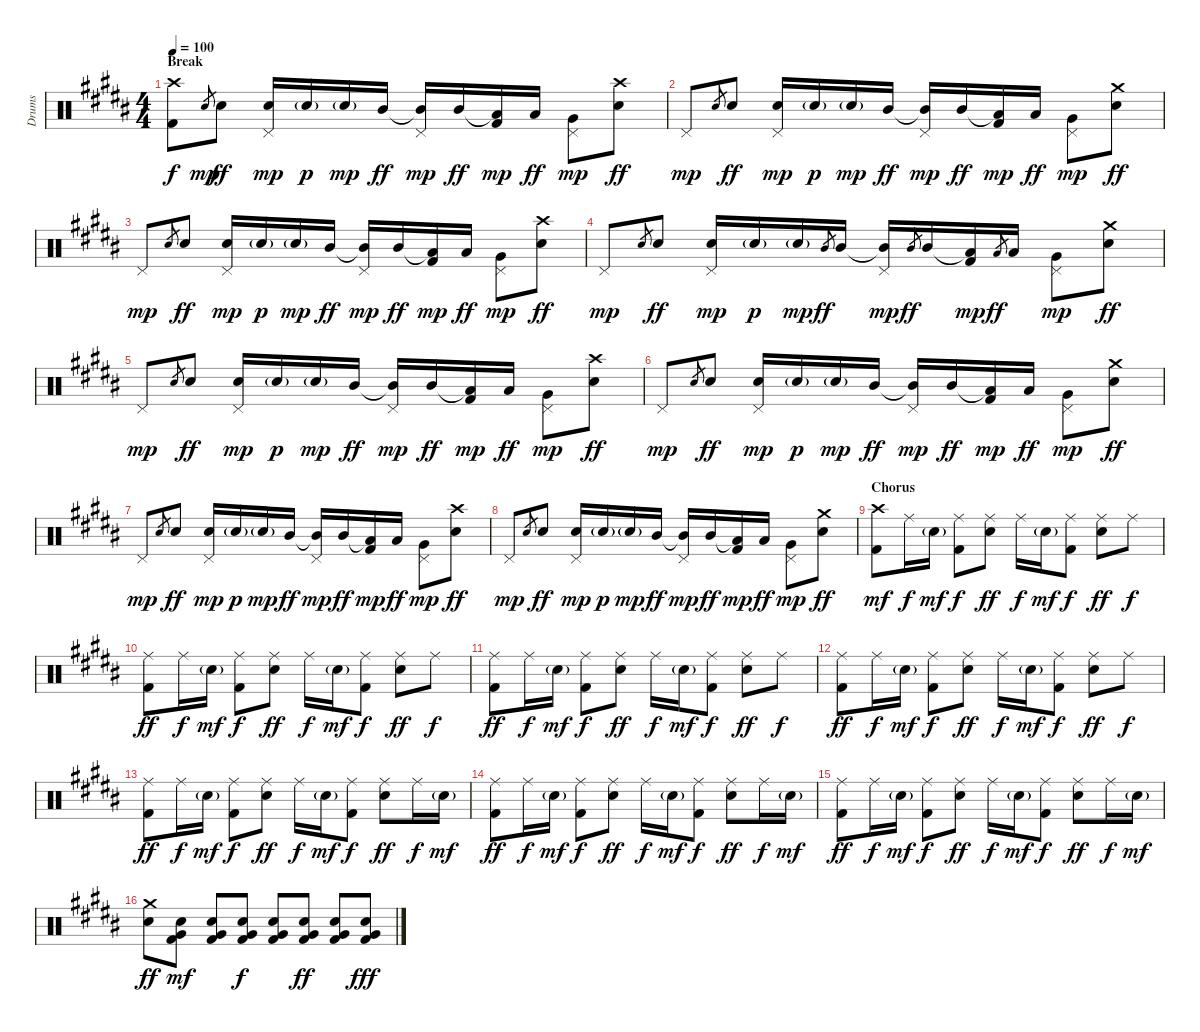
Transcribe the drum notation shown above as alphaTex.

\track ("Drums" "Drums") {instrument percussion}
\staff {score}
\articulation defaults
\ts (4 4)
\section ("" "Break")
\tempo 100
\clef neutral
\ks b
("Crash high (hit)" "Kick (hit) 2").8{dy f} "Snare (hit) 2".8{gr dy mp} "Snare (hit) 2".8{dy ff} ("Snare (hit) 2" "Pedal Hi-Hat (hit)").16{dy mp} "Snare (hit) 2"{g}.16{dy p} "Snare (hit) 2"{g}.16{dy mp} "Mid Tom (hit)".16{dy ff} ("Mid Tom (hit)"{t} "Pedal Hi-Hat (hit)").16{dy mp} "Mid Tom (hit)".16{dy ff} ("Low Tom (hit)"{t} "Kick (hit) 2").16{dy mp} "Low Tom (hit)".16{dy ff} ("Very Low Tom (hit)" "Pedal Hi-Hat (hit)").8{dy mp} ("Crash high (hit)" "Snare (hit) 2").8{dy ff} |
"Pedal Hi-Hat (hit)".8{dy mp} "Snare (hit) 2".8{gr} "Snare (hit) 2".8{dy ff} ("Snare (hit) 2" "Pedal Hi-Hat (hit)").16{dy mp} "Snare (hit) 2"{g}.16{dy p} "Snare (hit) 2"{g}.16{dy mp} "Mid Tom (hit)".16{dy ff} ("Mid Tom (hit)"{t} "Pedal Hi-Hat (hit)").16{dy mp} "Mid Tom (hit)".16{dy ff} ("Low Tom (hit)"{t} "Kick (hit) 2").16{dy mp} "Low Tom (hit)".16{dy ff} ("Very Low Tom (hit)" "Pedal Hi-Hat (hit)").8{dy mp} ("Crash medium (hit)" "Snare (hit) 2").8{dy ff} |
"Pedal Hi-Hat (hit)".8{dy mp} "Snare (hit) 2".8{gr} "Snare (hit) 2".8{dy ff} ("Snare (hit) 2" "Pedal Hi-Hat (hit)").16{dy mp} "Snare (hit) 2"{g}.16{dy p} "Snare (hit) 2"{g}.16{dy mp} "Mid Tom (hit)".16{dy ff} ("Mid Tom (hit)"{t} "Pedal Hi-Hat (hit)").16{dy mp} "Mid Tom (hit)".16{dy ff} ("Low Tom (hit)"{t} "Kick (hit) 2").16{dy mp} "Low Tom (hit)".16{dy ff} ("Very Low Tom (hit)" "Pedal Hi-Hat (hit)").8{dy mp} ("Crash high (hit)" "Snare (hit) 2").8{dy ff} |
"Pedal Hi-Hat (hit)".8{dy mp} "Snare (hit) 2".8{gr} "Snare (hit) 2".8{dy ff} ("Snare (hit) 2" "Pedal Hi-Hat (hit)").16{dy mp} "Snare (hit) 2"{g}.16{dy p} "Snare (hit) 2"{g}.16{dy mp} "Mid Tom (hit)".8{gr dy ff} "Mid Tom (hit)".16 ("Mid Tom (hit)"{t} "Pedal Hi-Hat (hit)").16{dy mp} "Mid Tom (hit)".8{gr dy ff} "Mid Tom (hit)".16 ("Low Tom (hit)"{t} "Kick (hit) 2").16{dy mp} "Low Tom (hit)".8{gr dy ff} "Low Tom (hit)".16 ("Very Low Tom (hit)" "Pedal Hi-Hat (hit)").8{dy mp} ("Crash medium (hit)" "Snare (hit) 2").8{dy ff} |
"Pedal Hi-Hat (hit)".8{dy mp} "Snare (hit) 2".8{gr} "Snare (hit) 2".8{dy ff} ("Snare (hit) 2" "Pedal Hi-Hat (hit)").16{dy mp} "Snare (hit) 2"{g}.16{dy p} "Snare (hit) 2"{g}.16{dy mp} "Mid Tom (hit)".16{dy ff} ("Mid Tom (hit)"{t} "Pedal Hi-Hat (hit)").16{dy mp} "Mid Tom (hit)".16{dy ff} ("Low Tom (hit)"{t} "Kick (hit) 2").16{dy mp} "Low Tom (hit)".16{dy ff} ("Very Low Tom (hit)" "Pedal Hi-Hat (hit)").8{dy mp} ("Crash high (hit)" "Snare (hit) 2").8{dy ff} |
"Pedal Hi-Hat (hit)".8{dy mp} "Snare (hit) 2".8{gr} "Snare (hit) 2".8{dy ff} ("Snare (hit) 2" "Pedal Hi-Hat (hit)").16{dy mp} "Snare (hit) 2"{g}.16{dy p} "Snare (hit) 2"{g}.16{dy mp} "Mid Tom (hit)".16{dy ff} ("Mid Tom (hit)"{t} "Pedal Hi-Hat (hit)").16{dy mp} "Mid Tom (hit)".16{dy ff} ("Low Tom (hit)"{t} "Kick (hit) 2").16{dy mp} "Low Tom (hit)".16{dy ff} ("Very Low Tom (hit)" "Pedal Hi-Hat (hit)").8{dy mp} ("Crash medium (hit)" "Snare (hit) 2").8{dy ff} |
"Pedal Hi-Hat (hit)".8{dy mp volume 7} "Snare (hit) 2".8{gr} "Snare (hit) 2".8{dy ff} ("Snare (hit) 2" "Pedal Hi-Hat (hit)").16{dy mp} "Snare (hit) 2"{g}.16{dy p} "Snare (hit) 2"{g}.16{dy mp} "Mid Tom (hit)".16{dy ff} ("Mid Tom (hit)"{t} "Pedal Hi-Hat (hit)").16{dy mp} "Mid Tom (hit)".16{dy ff} ("Low Tom (hit)"{t} "Kick (hit) 2").16{dy mp} "Low Tom (hit)".16{dy ff} ("Very Low Tom (hit)" "Pedal Hi-Hat (hit)").8{dy mp} ("Crash high (hit)" "Snare (hit) 2").8{dy ff} |
"Pedal Hi-Hat (hit)".8{dy mp} "Snare (hit) 2".8{gr} "Snare (hit) 2".8{dy ff} ("Snare (hit) 2" "Pedal Hi-Hat (hit)").16{dy mp} "Snare (hit) 2"{g}.16{dy p} "Snare (hit) 2"{g}.16{dy mp} "Mid Tom (hit)".16{dy ff} ("Mid Tom (hit)"{t} "Pedal Hi-Hat (hit)").16{dy mp} "Mid Tom (hit)".16{dy ff} ("Low Tom (hit)"{t} "Kick (hit) 2").16{dy mp} "Low Tom (hit)".16{dy ff} ("Very Low Tom (hit)" "Pedal Hi-Hat (hit)").8{dy mp} ("Crash medium (hit)" "Snare (hit) 2").8{dy ff} |
\section ("" "Chorus")
("Crash high (hit)" "Kick (hit) 2").8{dy mf volume 9} "Ride (middle)".16{dy f} "Snare (hit) 2"{g}.16{dy mf} ("Ride (middle)" "Kick (hit) 2").8{dy f} ("Ride (middle)" "Snare (hit) 2").8{dy ff} "Ride (middle)".16{dy f} "Snare (hit) 2"{g}.16{dy mf} ("Ride (middle)" "Kick (hit) 2").8{dy f} ("Ride (middle)" "Snare (hit) 2").8{dy ff} "Ride (middle)".8{dy f} |
("Ride (middle)" "Kick (hit) 2").8{dy ff} "Ride (middle)".16{dy f} "Snare (hit) 2"{g}.16{dy mf} ("Ride (middle)" "Kick (hit) 2").8{dy f} ("Ride (middle)" "Snare (hit) 2").8{dy ff} "Ride (middle)".16{dy f} "Snare (hit) 2"{g}.16{dy mf} ("Ride (middle)" "Kick (hit) 2").8{dy f} ("Ride (middle)" "Snare (hit) 2").8{dy ff} "Ride (middle)".8{dy f} |
("Ride (middle)" "Kick (hit) 2").8{dy ff} "Ride (middle)".16{dy f} "Snare (hit) 2"{g}.16{dy mf} ("Ride (middle)" "Kick (hit) 2").8{dy f} ("Ride (middle)" "Snare (hit) 2").8{dy ff} "Ride (middle)".16{dy f} "Snare (hit) 2"{g}.16{dy mf} ("Ride (middle)" "Kick (hit) 2").8{dy f} ("Ride (middle)" "Snare (hit) 2").8{dy ff} "Ride (middle)".8{dy f} |
("Ride (middle)" "Kick (hit) 2").8{dy ff} "Ride (middle)".16{dy f} "Snare (hit) 2"{g}.16{dy mf} ("Ride (middle)" "Kick (hit) 2").8{dy f} ("Ride (middle)" "Snare (hit) 2").8{dy ff} "Ride (middle)".16{dy f} "Snare (hit) 2"{g}.16{dy mf} ("Ride (middle)" "Kick (hit) 2").8{dy f} ("Ride (middle)" "Snare (hit) 2").8{dy ff} "Ride (middle)".8{dy f} |
("Ride (middle)" "Kick (hit) 2").8{dy ff volume 11} "Ride (middle)".16{dy f} "Snare (hit) 2"{g}.16{dy mf} ("Ride (middle)" "Kick (hit) 2").8{dy f} ("Ride (middle)" "Snare (hit) 2").8{dy ff} "Ride (middle)".16{dy f} "Snare (hit) 2"{g}.16{dy mf} ("Ride (middle)" "Kick (hit) 2").8{dy f} ("Ride (middle)" "Snare (hit) 2").8{dy ff} "Ride (middle)".16{dy f} "Snare (hit) 2"{g}.16{dy mf} |
("Ride (middle)" "Kick (hit) 2").8{dy ff} "Ride (middle)".16{dy f} "Snare (hit) 2"{g}.16{dy mf} ("Ride (middle)" "Kick (hit) 2").8{dy f} ("Ride (middle)" "Snare (hit) 2").8{dy ff} "Ride (middle)".16{dy f} "Snare (hit) 2"{g}.16{dy mf} ("Ride (middle)" "Kick (hit) 2").8{dy f} ("Ride (middle)" "Snare (hit) 2").8{dy ff} "Ride (middle)".16{dy f} "Snare (hit) 2"{g}.16{dy mf} |
("Ride (middle)" "Kick (hit) 2").8{dy ff} "Ride (middle)".16{dy f} "Snare (hit) 2"{g}.16{dy mf} ("Ride (middle)" "Kick (hit) 2").8{dy f} ("Ride (middle)" "Snare (hit) 2").8{dy ff} "Ride (middle)".16{dy f} "Snare (hit) 2"{g}.16{dy mf} ("Ride (middle)" "Kick (hit) 2").8{dy f} ("Ride (middle)" "Snare (hit) 2").8{dy ff} "Ride (middle)".16{dy f} "Snare (hit) 2"{g}.16{dy mf} |
("Crash medium (hit)" "Snare (hit) 2").8{dy ff} ("Very Low Tom (hit)" "Snare (hit) 2" "Kick (hit) 2").8{dy mf} ("Very Low Tom (hit)" "Snare (hit) 2" "Kick (hit) 2").8 ("Very Low Tom (hit)" "Snare (hit) 2" "Kick (hit) 2").8{dy f} ("Very Low Tom (hit)" "Snare (hit) 2" "Kick (hit) 2").8 ("Very Low Tom (hit)" "Snare (hit) 2" "Kick (hit) 2").8{dy ff} ("Very Low Tom (hit)" "Snare (hit) 2" "Kick (hit) 2").8 ("Very Low Tom (hit)" "Snare (hit) 2" "Kick (hit) 2").8{dy fff}
